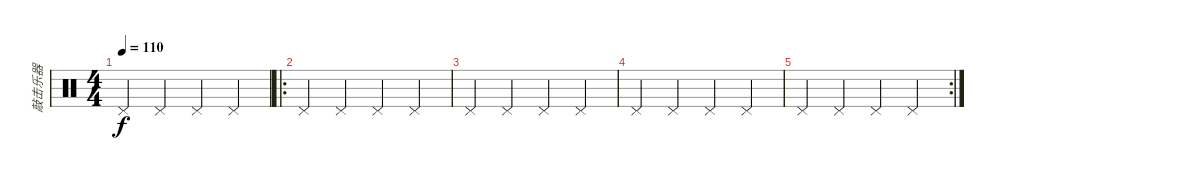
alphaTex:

\track ("敲击乐器" "敲击乐器") {instrument percussion}
\staff {score}
\articulation defaults
\ts (4 4)
\tempo 110
\clef neutral
\ks c "Pedal Hi-Hat (hit)".4{dy f} "Pedal Hi-Hat (hit)".4 "Pedal Hi-Hat (hit)".4 "Pedal Hi-Hat (hit)".4
|
\ro "Pedal Hi-Hat (hit)".4 "Pedal Hi-Hat (hit)".4 "Pedal Hi-Hat (hit)".4 "Pedal Hi-Hat (hit)".4
|
"Pedal Hi-Hat (hit)".4 "Pedal Hi-Hat (hit)".4 "Pedal Hi-Hat (hit)".4 "Pedal Hi-Hat (hit)".4 |
"Pedal Hi-Hat (hit)".4 "Pedal Hi-Hat (hit)".4 "Pedal Hi-Hat (hit)".4 "Pedal Hi-Hat (hit)".4 |
\rc 2 "Pedal Hi-Hat (hit)".4 "Pedal Hi-Hat (hit)".4 "Pedal Hi-Hat (hit)".4 "Pedal Hi-Hat (hit)".4
